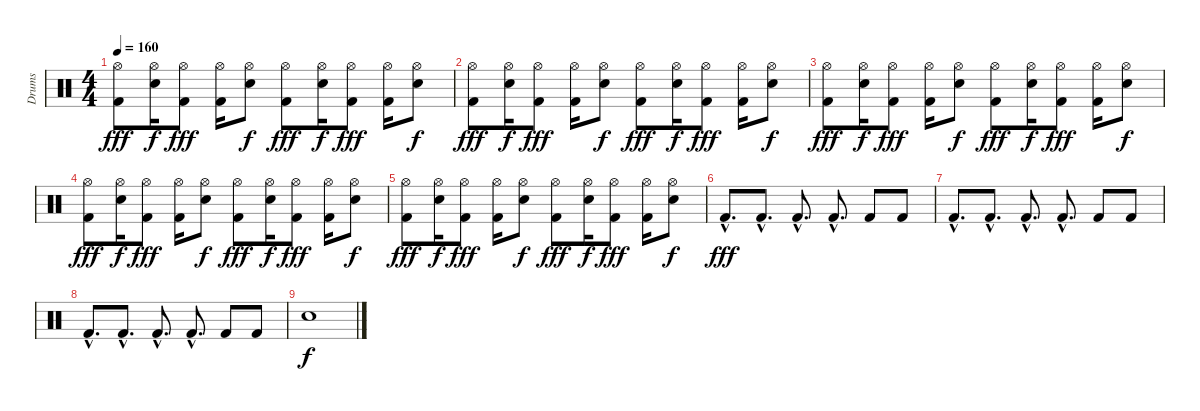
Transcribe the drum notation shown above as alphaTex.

\track ("Drums" "Drums") {instrument percussion}
\staff {score}
\articulation defaults
\ts (4 4)
\tempo 160
\clef neutral
\ks c
("Hi-Hat (open)" "Kick (hit) 2").8{dy fff} ("Hi-Hat (open)" "Electric Snare (hit)").16{dy f} ("Hi-Hat (open)" "Kick (hit) 2").8{dy fff} ("Hi-Hat (open)" "Kick (hit) 2").16 ("Hi-Hat (open)" "Electric Snare (hit)").8{dy f} ("Hi-Hat (open)" "Kick (hit) 2").8{dy fff} ("Hi-Hat (open)" "Electric Snare (hit)").16{dy f} ("Hi-Hat (open)" "Kick (hit) 2").8{dy fff} ("Hi-Hat (open)" "Kick (hit) 2").16 ("Hi-Hat (open)" "Electric Snare (hit)").8{dy f} |
("Hi-Hat (open)" "Kick (hit) 2").8{dy fff} ("Hi-Hat (open)" "Electric Snare (hit)").16{dy f} ("Hi-Hat (open)" "Kick (hit) 2").8{dy fff} ("Hi-Hat (open)" "Kick (hit) 2").16 ("Hi-Hat (open)" "Electric Snare (hit)").8{dy f} ("Hi-Hat (open)" "Kick (hit) 2").8{dy fff} ("Hi-Hat (open)" "Electric Snare (hit)").16{dy f} ("Hi-Hat (open)" "Kick (hit) 2").8{dy fff} ("Hi-Hat (open)" "Kick (hit) 2").16 ("Hi-Hat (open)" "Electric Snare (hit)").8{dy f} |
("Hi-Hat (open)" "Kick (hit) 2").8{dy fff} ("Hi-Hat (open)" "Electric Snare (hit)").16{dy f} ("Hi-Hat (open)" "Kick (hit) 2").8{dy fff} ("Hi-Hat (open)" "Kick (hit) 2").16 ("Hi-Hat (open)" "Electric Snare (hit)").8{dy f} ("Hi-Hat (open)" "Kick (hit) 2").8{dy fff} ("Hi-Hat (open)" "Electric Snare (hit)").16{dy f} ("Hi-Hat (open)" "Kick (hit) 2").8{dy fff} ("Hi-Hat (open)" "Kick (hit) 2").16 ("Hi-Hat (open)" "Electric Snare (hit)").8{dy f} |
("Hi-Hat (open)" "Kick (hit) 2").8{dy fff} ("Hi-Hat (open)" "Electric Snare (hit)").16{dy f} ("Hi-Hat (open)" "Kick (hit) 2").8{dy fff} ("Hi-Hat (open)" "Kick (hit) 2").16 ("Hi-Hat (open)" "Electric Snare (hit)").8{dy f} ("Hi-Hat (open)" "Kick (hit) 2").8{dy fff} ("Hi-Hat (open)" "Electric Snare (hit)").16{dy f} ("Hi-Hat (open)" "Kick (hit) 2").8{dy fff} ("Hi-Hat (open)" "Kick (hit) 2").16 ("Hi-Hat (open)" "Electric Snare (hit)").8{dy f} |
("Hi-Hat (open)" "Kick (hit) 2").8{dy fff} ("Hi-Hat (open)" "Electric Snare (hit)").16{dy f} ("Hi-Hat (open)" "Kick (hit) 2").8{dy fff} ("Hi-Hat (open)" "Kick (hit) 2").16 ("Hi-Hat (open)" "Electric Snare (hit)").8{dy f} ("Hi-Hat (open)" "Kick (hit) 2").8{dy fff} ("Hi-Hat (open)" "Electric Snare (hit)").16{dy f} ("Hi-Hat (open)" "Kick (hit) 2").8{dy fff} ("Hi-Hat (open)" "Kick (hit) 2").16 ("Hi-Hat (open)" "Electric Snare (hit)").8{dy f} |
"Kick (hit) 2"{hac}.8{d dy fff} "Kick (hit) 2"{hac}.8{d} "Kick (hit) 2"{hac}.8{d} "Kick (hit) 2"{hac}.8{d} "Kick (hit) 2".8 "Kick (hit) 2".8 |
"Kick (hit) 2"{hac}.8{d} "Kick (hit) 2"{hac}.8{d} "Kick (hit) 2"{hac}.8{d} "Kick (hit) 2"{hac}.8{d} "Kick (hit) 2".8 "Kick (hit) 2".8 |
"Kick (hit) 2"{hac}.8{d} "Kick (hit) 2"{hac}.8{d} "Kick (hit) 2"{hac}.8{d} "Kick (hit) 2"{hac}.8{d} "Kick (hit) 2".8 "Kick (hit) 2".8 |
"Electric Snare (hit)".1{dy f}
